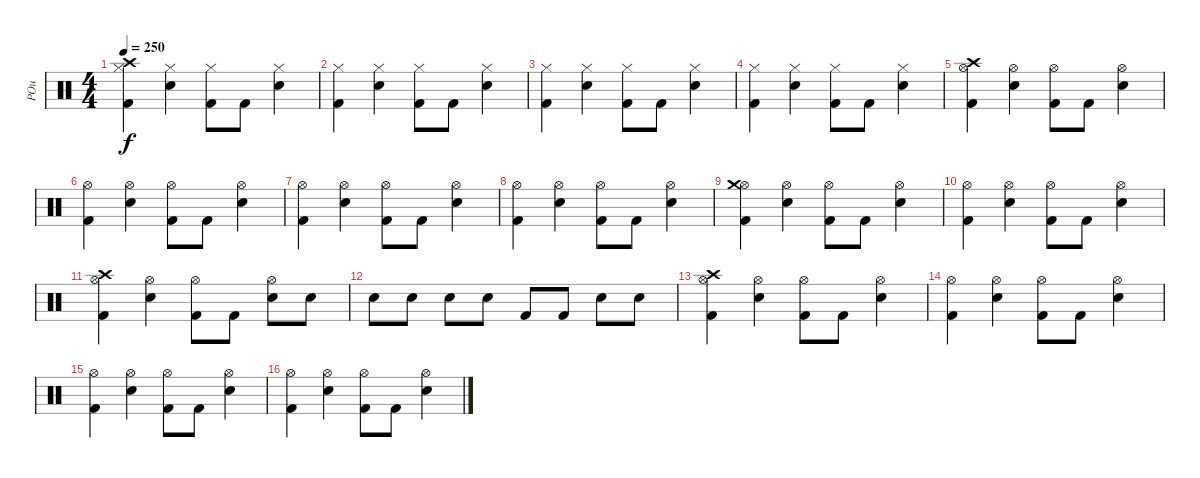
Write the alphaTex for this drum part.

\track ("POu" "POu") {instrument percussion}
\staff {score}
\articulation defaults
\ts (4 4)
\tempo 250
\clef neutral
\ks c
("Kick (hit) 2" "Hi-Hat (closed)" "Crash high (hit)").4{dy f} ("Electric Snare (hit)" "Hi-Hat (closed)").4 ("Kick (hit) 2" "Hi-Hat (closed)").8 "Kick (hit) 2".8 ("Electric Snare (hit)" "Hi-Hat (closed)").4 |
("Kick (hit) 2" "Hi-Hat (closed)").4 ("Electric Snare (hit)" "Hi-Hat (closed)").4 ("Kick (hit) 2" "Hi-Hat (closed)").8 "Kick (hit) 2".8 ("Electric Snare (hit)" "Hi-Hat (closed)").4 |
("Kick (hit) 2" "Hi-Hat (closed)").4 ("Electric Snare (hit)" "Hi-Hat (closed)").4 ("Kick (hit) 2" "Hi-Hat (closed)").8 "Kick (hit) 2".8 ("Electric Snare (hit)" "Hi-Hat (closed)").4 |
("Kick (hit) 2" "Hi-Hat (closed)").4 ("Electric Snare (hit)" "Hi-Hat (closed)").4 ("Kick (hit) 2" "Hi-Hat (closed)").8 "Kick (hit) 2".8 ("Electric Snare (hit)" "Hi-Hat (closed)").4 |
("Kick (hit) 2" "Hi-Hat (open)" "Crash high (hit)").4 ("Electric Snare (hit)" "Hi-Hat (open)").4 ("Kick (hit) 2" "Hi-Hat (open)").8 "Kick (hit) 2".8 ("Electric Snare (hit)" "Hi-Hat (open)").4 |
("Kick (hit) 2" "Hi-Hat (open)").4 ("Electric Snare (hit)" "Hi-Hat (open)").4 ("Kick (hit) 2" "Hi-Hat (open)").8 "Kick (hit) 2".8 ("Electric Snare (hit)" "Hi-Hat (open)").4 |
("Kick (hit) 2" "Hi-Hat (open)").4 ("Electric Snare (hit)" "Hi-Hat (open)").4 ("Kick (hit) 2" "Hi-Hat (open)").8 "Kick (hit) 2".8 ("Electric Snare (hit)" "Hi-Hat (open)").4 |
("Kick (hit) 2" "Hi-Hat (open)").4 ("Electric Snare (hit)" "Hi-Hat (open)").4 ("Kick (hit) 2" "Hi-Hat (open)").8 "Kick (hit) 2".8 ("Electric Snare (hit)" "Hi-Hat (open)").4 |
("Kick (hit) 2" "Hi-Hat (open)" "Crash medium (hit)").4 ("Electric Snare (hit)" "Hi-Hat (open)").4 ("Kick (hit) 2" "Hi-Hat (open)").8 "Kick (hit) 2".8 ("Electric Snare (hit)" "Hi-Hat (open)").4 |
("Kick (hit) 2" "Hi-Hat (open)").4 ("Electric Snare (hit)" "Hi-Hat (open)").4 ("Kick (hit) 2" "Hi-Hat (open)").8 "Kick (hit) 2".8 ("Electric Snare (hit)" "Hi-Hat (open)").4 |
("Kick (hit) 2" "Hi-Hat (open)" "Crash high (hit)").4 ("Electric Snare (hit)" "Hi-Hat (open)").4 ("Kick (hit) 2" "Hi-Hat (open)").8 "Kick (hit) 2".8 ("Electric Snare (hit)" "Hi-Hat (open)").8 "Electric Snare (hit)".8 |
"Electric Snare (hit)".8 "Electric Snare (hit)".8 "Electric Snare (hit)".8 "Electric Snare (hit)".8 "Kick (hit) 2".8 "Kick (hit) 2".8 "Electric Snare (hit)".8 "Electric Snare (hit)".8 |
("Kick (hit) 2" "Hi-Hat (open)" "Crash high (hit)").4 ("Electric Snare (hit)" "Hi-Hat (open)").4 ("Kick (hit) 2" "Hi-Hat (open)").8 "Kick (hit) 2".8 ("Electric Snare (hit)" "Hi-Hat (open)").4 |
("Kick (hit) 2" "Hi-Hat (open)").4 ("Electric Snare (hit)" "Hi-Hat (open)").4 ("Kick (hit) 2" "Hi-Hat (open)").8 "Kick (hit) 2".8 ("Electric Snare (hit)" "Hi-Hat (open)").4 |
("Kick (hit) 2" "Hi-Hat (open)").4 ("Electric Snare (hit)" "Hi-Hat (open)").4 ("Kick (hit) 2" "Hi-Hat (open)").8 "Kick (hit) 2".8 ("Electric Snare (hit)" "Hi-Hat (open)").4 |
("Kick (hit) 2" "Hi-Hat (open)").4 ("Electric Snare (hit)" "Hi-Hat (open)").4 ("Kick (hit) 2" "Hi-Hat (open)").8 "Kick (hit) 2".8 ("Electric Snare (hit)" "Hi-Hat (open)").4
